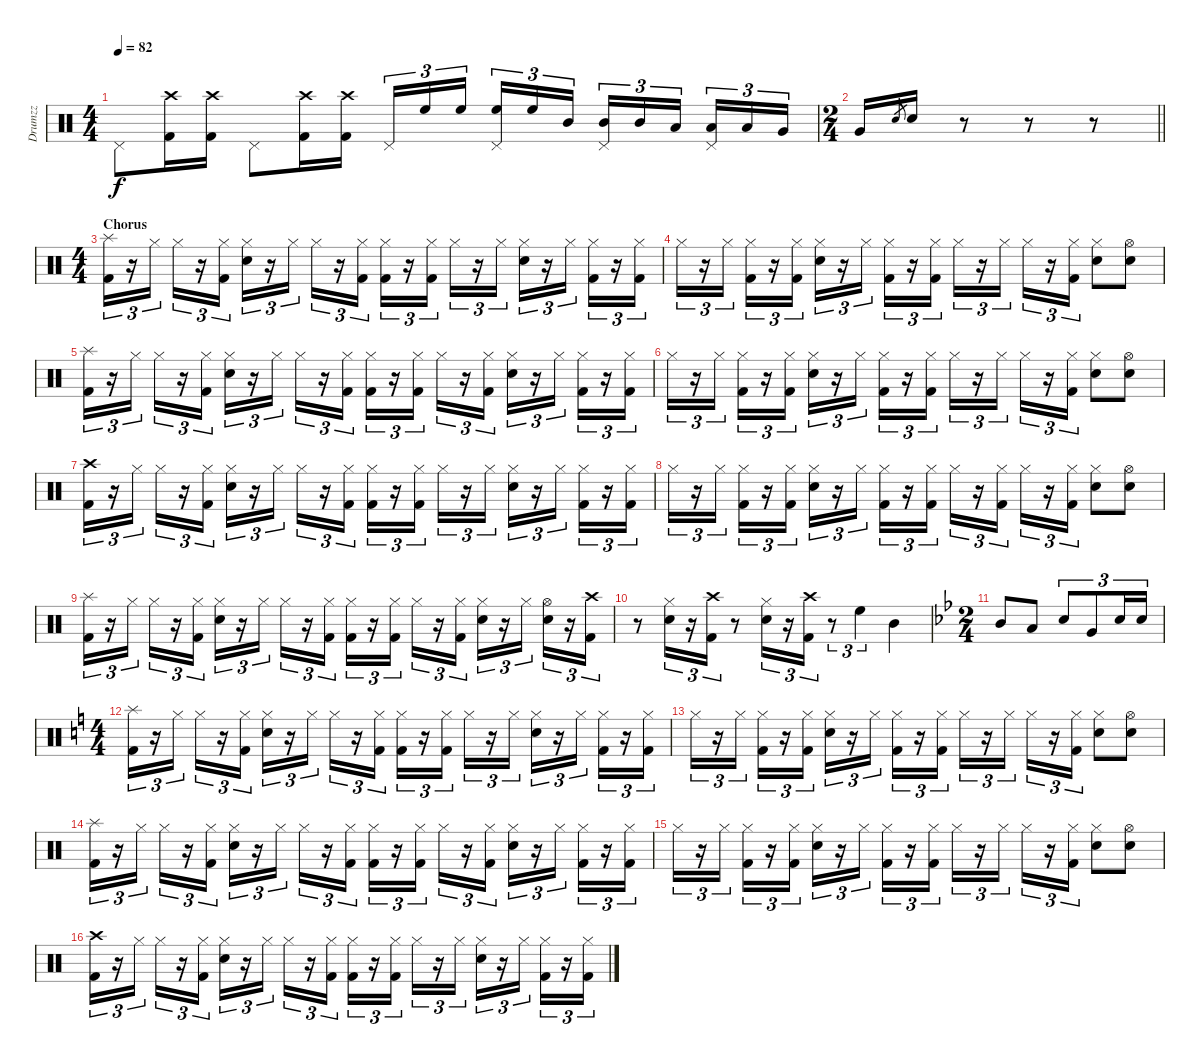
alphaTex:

\track ("Drumzz" "Drumzz") {instrument percussion}
\staff {score}
\articulation defaults
\ts (4 4)
\tempo 82
\clef neutral
\ks c "Pedal Hi-Hat (hit)".8{dy f}
("Crash high (hit)" "Kick (hit) 2").16 ("Crash high (hit)" "Kick (hit) 2").16 "Pedal Hi-Hat (hit)".8 ("Crash high (hit)" "Kick (hit) 2").16 ("Crash high (hit)" "Kick (hit) 2").16 "Pedal Hi-Hat (hit)".16{tu (3 2)} "High Floor Tom (hit)".16{tu (3 2)} "High Floor Tom (hit)".16{tu (3 2) beam splitsecondary} ("Pedal Hi-Hat (hit)" "High Floor Tom (hit)").16{tu (3 2)} "High Floor Tom (hit)".16{tu (3 2)} "Mid Tom (hit)".16{tu (3 2)} ("Pedal Hi-Hat (hit)" "Mid Tom (hit)").16{tu (3 2)} "Mid Tom (hit)".16{tu (3 2)} "Low Tom (hit)".16{tu (3 2) beam splitsecondary} ("Pedal Hi-Hat (hit)" "Low Tom (hit)").16{tu (3 2)} "Low Tom (hit)".16{tu (3 2)} "Very Low Tom (hit)".16{tu (3 2)} |
\ts (2 4)
\barLineRight lightlight "Very Low Tom (hit)".16 "Snare (hit) 2".8{gr} "Snare (hit) 2".16
r.8 r.8 r.8 |
\ts (4 4)
\section ("" "Chorus")
("Splash (hit)" "Kick (hit) 2").16{tu (3 2)} r.16{tu (3 2)} "Hi-Hat (closed)".16{tu (3 2)} "Hi-Hat (closed)".16{tu (3 2)} r.16{tu (3 2)} ("Hi-Hat (closed)" "Kick (hit) 2").16{tu (3 2)} ("Hi-Hat (closed)" "Snare (hit) 2").16{tu (3 2)} r.16{tu (3 2)} "Hi-Hat (closed)".16{tu (3 2)} "Hi-Hat (closed)".16{tu (3 2)} r.16{tu (3 2)} ("Hi-Hat (closed)" "Kick (hit) 2").16{tu (3 2)} ("Hi-Hat (closed)" "Kick (hit) 2").16{tu (3 2)} r.16{tu (3 2)} ("Hi-Hat (closed)" "Kick (hit) 2").16{tu (3 2)} "Hi-Hat (closed)".16{tu (3 2)} r.16{tu (3 2)} "Hi-Hat (closed)".16{tu (3 2)} ("Hi-Hat (closed)" "Snare (hit) 2").16{tu (3 2)} r.16{tu (3 2)} "Hi-Hat (closed)".16{tu (3 2)} ("Hi-Hat (closed)" "Kick (hit) 2").16{tu (3 2)} r.16{tu (3 2)} ("Hi-Hat (closed)" "Kick (hit) 2").16{tu (3 2)} |
"Hi-Hat (closed)".16{tu (3 2)} r.16{tu (3 2)} "Hi-Hat (closed)".16{tu (3 2)} ("Hi-Hat (closed)" "Kick (hit) 2").16{tu (3 2)} r.16{tu (3 2)} ("Hi-Hat (closed)" "Kick (hit) 2").16{tu (3 2)} ("Hi-Hat (closed)" "Snare (hit) 2").16{tu (3 2)} r.16{tu (3 2)} "Hi-Hat (closed)".16{tu (3 2)} ("Hi-Hat (closed)" "Kick (hit) 2").16{tu (3 2)} r.16{tu (3 2)} ("Hi-Hat (closed)" "Kick (hit) 2").16{tu (3 2)} "Hi-Hat (closed)".16{tu (3 2)} r.16{tu (3 2)} "Hi-Hat (closed)".16{tu (3 2)} "Hi-Hat (closed)".16{tu (3 2)} r.16{tu (3 2)} ("Hi-Hat (closed)" "Kick (hit) 2").16{tu (3 2)} ("Hi-Hat (closed)" "Snare (hit) 2").8 ("Hi-Hat (open)" "Snare (hit) 2").8 |
("Splash (hit)" "Kick (hit) 2").16{tu (3 2)} r.16{tu (3 2)} "Hi-Hat (closed)".16{tu (3 2)} "Hi-Hat (closed)".16{tu (3 2)} r.16{tu (3 2)} ("Hi-Hat (closed)" "Kick (hit) 2").16{tu (3 2)} ("Hi-Hat (closed)" "Snare (hit) 2").16{tu (3 2)} r.16{tu (3 2)} "Hi-Hat (closed)".16{tu (3 2)} "Hi-Hat (closed)".16{tu (3 2)} r.16{tu (3 2)} ("Hi-Hat (closed)" "Kick (hit) 2").16{tu (3 2)} ("Hi-Hat (closed)" "Kick (hit) 2").16{tu (3 2)} r.16{tu (3 2)} ("Hi-Hat (closed)" "Kick (hit) 2").16{tu (3 2)} "Hi-Hat (closed)".16{tu (3 2)} r.16{tu (3 2)} ("Hi-Hat (closed)" "Kick (hit) 2").16{tu (3 2)} ("Hi-Hat (closed)" "Snare (hit) 2").16{tu (3 2)} r.16{tu (3 2)} "Hi-Hat (closed)".16{tu (3 2)} ("Hi-Hat (closed)" "Kick (hit) 2").16{tu (3 2)} r.16{tu (3 2)} ("Hi-Hat (closed)" "Kick (hit) 2").16{tu (3 2)} |
"Hi-Hat (closed)".16{tu (3 2)} r.16{tu (3 2)} "Hi-Hat (closed)".16{tu (3 2)} ("Hi-Hat (closed)" "Kick (hit) 2").16{tu (3 2)} r.16{tu (3 2)} ("Hi-Hat (closed)" "Kick (hit) 2").16{tu (3 2)} ("Hi-Hat (closed)" "Snare (hit) 2").16{tu (3 2)} r.16{tu (3 2)} "Hi-Hat (closed)".16{tu (3 2)} ("Hi-Hat (closed)" "Kick (hit) 2").16{tu (3 2)} r.16{tu (3 2)} ("Hi-Hat (closed)" "Kick (hit) 2").16{tu (3 2)} "Hi-Hat (closed)".16{tu (3 2)} r.16{tu (3 2)} "Hi-Hat (closed)".16{tu (3 2)} "Hi-Hat (closed)".16{tu (3 2)} r.16{tu (3 2)} ("Hi-Hat (closed)" "Kick (hit) 2").16{tu (3 2)} ("Hi-Hat (closed)" "Snare (hit) 2").8 ("Hi-Hat (open)" "Snare (hit) 2").8 |
("Crash high (hit)" "Kick (hit) 2").16{tu (3 2)} r.16{tu (3 2)} "Hi-Hat (closed)".16{tu (3 2)} "Hi-Hat (closed)".16{tu (3 2)} r.16{tu (3 2)} ("Hi-Hat (closed)" "Kick (hit) 2").16{tu (3 2)} ("Hi-Hat (closed)" "Snare (hit) 2").16{tu (3 2)} r.16{tu (3 2)} "Hi-Hat (closed)".16{tu (3 2)} "Hi-Hat (closed)".16{tu (3 2)} r.16{tu (3 2)} ("Hi-Hat (closed)" "Kick (hit) 2").16{tu (3 2)} ("Hi-Hat (closed)" "Kick (hit) 2").16{tu (3 2)} r.16{tu (3 2)} ("Hi-Hat (closed)" "Kick (hit) 2").16{tu (3 2)} "Hi-Hat (closed)".16{tu (3 2)} r.16{tu (3 2)} "Hi-Hat (closed)".16{tu (3 2)} ("Hi-Hat (closed)" "Snare (hit) 2").16{tu (3 2)} r.16{tu (3 2)} "Hi-Hat (closed)".16{tu (3 2)} ("Hi-Hat (closed)" "Kick (hit) 2").16{tu (3 2)} r.16{tu (3 2)} ("Hi-Hat (closed)" "Kick (hit) 2").16{tu (3 2)} |
"Hi-Hat (closed)".16{tu (3 2)} r.16{tu (3 2)} "Hi-Hat (closed)".16{tu (3 2)} ("Hi-Hat (closed)" "Kick (hit) 2").16{tu (3 2)} r.16{tu (3 2)} ("Hi-Hat (closed)" "Kick (hit) 2").16{tu (3 2)} ("Hi-Hat (closed)" "Snare (hit) 2").16{tu (3 2)} r.16{tu (3 2)} "Hi-Hat (closed)".16{tu (3 2)} ("Hi-Hat (closed)" "Kick (hit) 2").16{tu (3 2)} r.16{tu (3 2)} ("Hi-Hat (closed)" "Kick (hit) 2").16{tu (3 2)} "Hi-Hat (closed)".16{tu (3 2)} r.16{tu (3 2)} ("Hi-Hat (closed)" "Kick (hit) 2").16{tu (3 2)} "Hi-Hat (closed)".16{tu (3 2)} r.16{tu (3 2)} ("Hi-Hat (closed)" "Kick (hit) 2").16{tu (3 2)} ("Hi-Hat (closed)" "Snare (hit) 2").8 ("Hi-Hat (open)" "Snare (hit) 2").8 |
("Splash (hit)" "Kick (hit) 2").16{tu (3 2)} r.16{tu (3 2)} "Hi-Hat (closed)".16{tu (3 2)} "Hi-Hat (closed)".16{tu (3 2)} r.16{tu (3 2)} ("Hi-Hat (closed)" "Kick (hit) 2").16{tu (3 2)} ("Hi-Hat (closed)" "Snare (hit) 2").16{tu (3 2)} r.16{tu (3 2)} "Hi-Hat (closed)".16{tu (3 2)} "Hi-Hat (closed)".16{tu (3 2)} r.16{tu (3 2)} ("Hi-Hat (closed)" "Kick (hit) 2").16{tu (3 2)} ("Hi-Hat (closed)" "Kick (hit) 2").16{tu (3 2)} r.16{tu (3 2)} ("Hi-Hat (closed)" "Kick (hit) 2").16{tu (3 2)} "Hi-Hat (closed)".16{tu (3 2)} r.16{tu (3 2)} ("Hi-Hat (closed)" "Kick (hit) 2").16{tu (3 2)} ("Hi-Hat (closed)" "Snare (hit) 2").16{tu (3 2)} r.16{tu (3 2)} "Hi-Hat (closed)".16{tu (3 2)} ("Hi-Hat (open)" "Snare (hit) 2").16{tu (3 2)} r.16{tu (3 2)} ("Crash high (hit)" "Kick (hit) 2").16{tu (3 2)} |
r.8 ("Hi-Hat (closed)" "Snare (hit) 2").16{tu (3 2)} r.16{tu (3 2)} ("Crash high (hit)" "Kick (hit) 2").16{tu (3 2)} r.8 ("Hi-Hat (closed)" "Snare (hit) 2").16{tu (3 2)} r.16{tu (3 2)} ("Crash high (hit)" "Kick (hit) 2").16{tu (3 2)} r.8{tu (3 2)} "High Floor Tom (hit)".4{tu (3 2)} "Mid Tom (hit)".4 |
\ts (2 4)
\ks bb "Mid Tom (hit)".8 "Low Floor Tom (hit)".8 "Snare (hit) 2".8{tu (3 2)} "Very Low Tom (hit)".8{tu (3 2)} "Snare (hit) 2".16{tu (3 2)} "Snare (hit) 2".16{tu (3 2)}
|
\ts (4 4)
\ks c
("Splash (hit)" "Kick (hit) 2").16{tu (3 2)} r.16{tu (3 2)} "Hi-Hat (closed)".16{tu (3 2)} "Hi-Hat (closed)".16{tu (3 2)} r.16{tu (3 2)} ("Hi-Hat (closed)" "Kick (hit) 2").16{tu (3 2)} ("Hi-Hat (closed)" "Snare (hit) 2").16{tu (3 2)} r.16{tu (3 2)} "Hi-Hat (closed)".16{tu (3 2)} "Hi-Hat (closed)".16{tu (3 2)} r.16{tu (3 2)} ("Hi-Hat (closed)" "Kick (hit) 2").16{tu (3 2)} ("Hi-Hat (closed)" "Kick (hit) 2").16{tu (3 2)} r.16{tu (3 2)} ("Hi-Hat (closed)" "Kick (hit) 2").16{tu (3 2)} "Hi-Hat (closed)".16{tu (3 2)} r.16{tu (3 2)} "Hi-Hat (closed)".16{tu (3 2)} ("Hi-Hat (closed)" "Snare (hit) 2").16{tu (3 2)} r.16{tu (3 2)} "Hi-Hat (closed)".16{tu (3 2)} ("Hi-Hat (closed)" "Kick (hit) 2").16{tu (3 2)} r.16{tu (3 2)} ("Hi-Hat (closed)" "Kick (hit) 2").16{tu (3 2)} |
"Hi-Hat (closed)".16{tu (3 2)} r.16{tu (3 2)} "Hi-Hat (closed)".16{tu (3 2)} ("Hi-Hat (closed)" "Kick (hit) 2").16{tu (3 2)} r.16{tu (3 2)} ("Hi-Hat (closed)" "Kick (hit) 2").16{tu (3 2)} ("Hi-Hat (closed)" "Snare (hit) 2").16{tu (3 2)} r.16{tu (3 2)} "Hi-Hat (closed)".16{tu (3 2)} ("Hi-Hat (closed)" "Kick (hit) 2").16{tu (3 2)} r.16{tu (3 2)} ("Hi-Hat (closed)" "Kick (hit) 2").16{tu (3 2)} "Hi-Hat (closed)".16{tu (3 2)} r.16{tu (3 2)} "Hi-Hat (closed)".16{tu (3 2)} "Hi-Hat (closed)".16{tu (3 2)} r.16{tu (3 2)} ("Hi-Hat (closed)" "Kick (hit) 2").16{tu (3 2)} ("Hi-Hat (closed)" "Snare (hit) 2").8 ("Hi-Hat (open)" "Snare (hit) 2").8 |
("Splash (hit)" "Kick (hit) 2").16{tu (3 2)} r.16{tu (3 2)} "Hi-Hat (closed)".16{tu (3 2)} "Hi-Hat (closed)".16{tu (3 2)} r.16{tu (3 2)} ("Hi-Hat (closed)" "Kick (hit) 2").16{tu (3 2)} ("Hi-Hat (closed)" "Snare (hit) 2").16{tu (3 2)} r.16{tu (3 2)} "Hi-Hat (closed)".16{tu (3 2)} "Hi-Hat (closed)".16{tu (3 2)} r.16{tu (3 2)} ("Hi-Hat (closed)" "Kick (hit) 2").16{tu (3 2)} ("Hi-Hat (closed)" "Kick (hit) 2").16{tu (3 2)} r.16{tu (3 2)} ("Hi-Hat (closed)" "Kick (hit) 2").16{tu (3 2)} "Hi-Hat (closed)".16{tu (3 2)} r.16{tu (3 2)} ("Hi-Hat (closed)" "Kick (hit) 2").16{tu (3 2)} ("Hi-Hat (closed)" "Snare (hit) 2").16{tu (3 2)} r.16{tu (3 2)} "Hi-Hat (closed)".16{tu (3 2)} ("Hi-Hat (closed)" "Kick (hit) 2").16{tu (3 2)} r.16{tu (3 2)} ("Hi-Hat (closed)" "Kick (hit) 2").16{tu (3 2)} |
"Hi-Hat (closed)".16{tu (3 2)} r.16{tu (3 2)} "Hi-Hat (closed)".16{tu (3 2)} ("Hi-Hat (closed)" "Kick (hit) 2").16{tu (3 2)} r.16{tu (3 2)} ("Hi-Hat (closed)" "Kick (hit) 2").16{tu (3 2)} ("Hi-Hat (closed)" "Snare (hit) 2").16{tu (3 2)} r.16{tu (3 2)} "Hi-Hat (closed)".16{tu (3 2)} ("Hi-Hat (closed)" "Kick (hit) 2").16{tu (3 2)} r.16{tu (3 2)} ("Hi-Hat (closed)" "Kick (hit) 2").16{tu (3 2)} "Hi-Hat (closed)".16{tu (3 2)} r.16{tu (3 2)} "Hi-Hat (closed)".16{tu (3 2)} "Hi-Hat (closed)".16{tu (3 2)} r.16{tu (3 2)} ("Hi-Hat (closed)" "Kick (hit) 2").16{tu (3 2)} ("Hi-Hat (closed)" "Snare (hit) 2").8 ("Hi-Hat (open)" "Snare (hit) 2").8 |
("Crash high (hit)" "Kick (hit) 2").16{tu (3 2)} r.16{tu (3 2)} "Hi-Hat (closed)".16{tu (3 2)} "Hi-Hat (closed)".16{tu (3 2)} r.16{tu (3 2)} ("Hi-Hat (closed)" "Kick (hit) 2").16{tu (3 2)} ("Hi-Hat (closed)" "Snare (hit) 2").16{tu (3 2)} r.16{tu (3 2)} "Hi-Hat (closed)".16{tu (3 2)} "Hi-Hat (closed)".16{tu (3 2)} r.16{tu (3 2)} ("Hi-Hat (closed)" "Kick (hit) 2").16{tu (3 2)} ("Hi-Hat (closed)" "Kick (hit) 2").16{tu (3 2)} r.16{tu (3 2)} ("Hi-Hat (closed)" "Kick (hit) 2").16{tu (3 2)} "Hi-Hat (closed)".16{tu (3 2)} r.16{tu (3 2)} "Hi-Hat (closed)".16{tu (3 2)} ("Hi-Hat (closed)" "Snare (hit) 2").16{tu (3 2)} r.16{tu (3 2)} "Hi-Hat (closed)".16{tu (3 2)} ("Hi-Hat (closed)" "Kick (hit) 2").16{tu (3 2)} r.16{tu (3 2)} ("Hi-Hat (closed)" "Kick (hit) 2").16{tu (3 2)}
